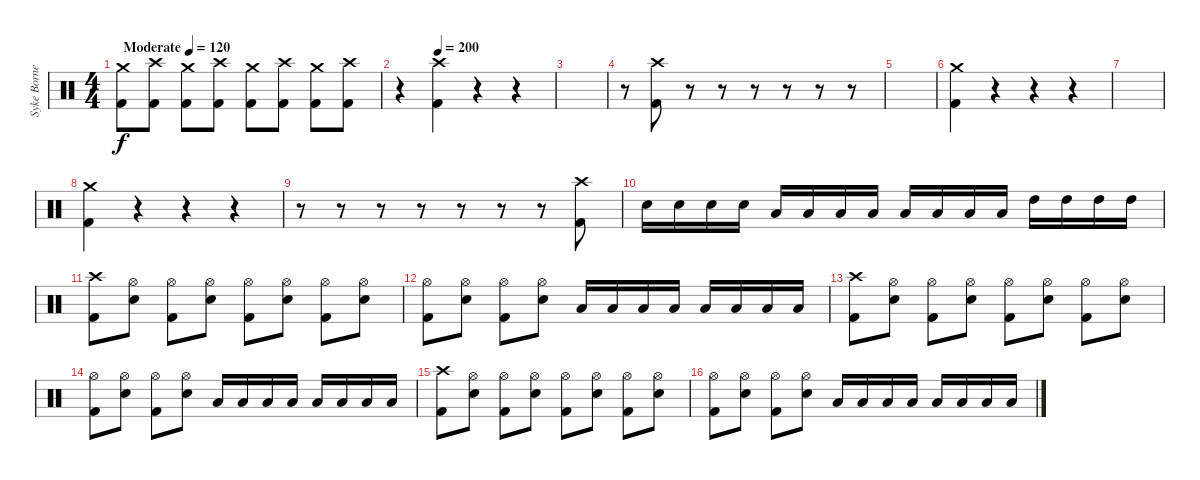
\track ("Syke Bornetto (Drums)" "Syke Borne") {instrument percussion}
\staff {score}
\articulation defaults
\ts (4 4)
\tempo (120 "Moderate")
\tempo 180
\tempo (120 "Moderate")
\clef neutral
\ks c
("Crash medium (hit)" "Kick (hit) 2").8{dy f} ("Crash high (hit)" "Kick (hit) 2").8 ("Crash medium (hit)" "Kick (hit) 2").8 ("Crash high (hit)" "Kick (hit) 2").8 ("Crash medium (hit)" "Kick (hit) 2").8 ("Crash high (hit)" "Kick (hit) 2").8 ("Crash medium (hit)" "Kick (hit) 2").8 ("Crash high (hit)" "Kick (hit) 2").8 |
\tempo (200 0.25)
r.4 ("Crash high (hit)" "Kick (hit) 2").4 r.4 r.4 |
|
r.8 ("Crash high (hit)" "Kick (hit) 2").8 r.8 r.8 r.8 r.8 r.8 r.8 |
|
("Crash medium (hit)" "Kick (hit) 2").4 r.4 r.4 r.4 |
|
("Crash medium (hit)" "Kick (hit) 2").4 r.4 r.4 r.4 |
r.8 r.8 r.8 r.8 r.8 r.8 r.8 ("Crash high (hit)" "Kick (hit) 2").8 |
"Electric Snare (hit)".16 "Electric Snare (hit)".16 "Electric Snare (hit)".16 "Electric Snare (hit)".16 "Low Floor Tom (hit)".16 "Low Floor Tom (hit)".16 "Low Floor Tom (hit)".16 "Low Floor Tom (hit)".16 "Low Tom (hit)".16 "Low Tom (hit)".16 "Low Tom (hit)".16 "Low Tom (hit)".16 "High Tom (hit)".16 "High Tom (hit)".16 "High Tom (hit)".16 "High Tom (hit)".16 |
("Crash high (hit)" "Kick (hit) 2").8 ("Hi-Hat (open)" "Electric Snare (hit)").8 ("Hi-Hat (open)" "Kick (hit) 2").8 ("Hi-Hat (open)" "Electric Snare (hit)").8 ("Hi-Hat (open)" "Kick (hit) 2").8 ("Hi-Hat (open)" "Electric Snare (hit)").8 ("Hi-Hat (open)" "Kick (hit) 2").8 ("Hi-Hat (open)" "Electric Snare (hit)").8 |
("Hi-Hat (open)" "Kick (hit) 2").8 ("Hi-Hat (open)" "Electric Snare (hit)").8 ("Hi-Hat (open)" "Kick (hit) 2").8 ("Hi-Hat (open)" "Electric Snare (hit)").8 "Low Floor Tom (hit)".16 "Low Floor Tom (hit)".16 "Low Floor Tom (hit)".16 "Low Floor Tom (hit)".16 "Low Tom (hit)".16 "Low Tom (hit)".16 "Low Tom (hit)".16 "Low Tom (hit)".16 |
("Crash high (hit)" "Kick (hit) 2").8 ("Hi-Hat (open)" "Electric Snare (hit)").8 ("Hi-Hat (open)" "Kick (hit) 2").8 ("Hi-Hat (open)" "Electric Snare (hit)").8 ("Hi-Hat (open)" "Kick (hit) 2").8 ("Hi-Hat (open)" "Electric Snare (hit)").8 ("Hi-Hat (open)" "Kick (hit) 2").8 ("Hi-Hat (open)" "Electric Snare (hit)").8 |
("Hi-Hat (open)" "Kick (hit) 2").8 ("Hi-Hat (open)" "Electric Snare (hit)").8 ("Hi-Hat (open)" "Kick (hit) 2").8 ("Hi-Hat (open)" "Electric Snare (hit)").8 "Low Floor Tom (hit)".16 "Low Floor Tom (hit)".16 "Low Floor Tom (hit)".16 "Low Floor Tom (hit)".16 "Low Tom (hit)".16 "Low Tom (hit)".16 "Low Tom (hit)".16 "Low Tom (hit)".16 |
("Crash high (hit)" "Kick (hit) 2").8 ("Hi-Hat (open)" "Electric Snare (hit)").8 ("Hi-Hat (open)" "Kick (hit) 2").8 ("Hi-Hat (open)" "Electric Snare (hit)").8 ("Hi-Hat (open)" "Kick (hit) 2").8 ("Hi-Hat (open)" "Electric Snare (hit)").8 ("Hi-Hat (open)" "Kick (hit) 2").8 ("Hi-Hat (open)" "Electric Snare (hit)").8 |
("Hi-Hat (open)" "Kick (hit) 2").8 ("Hi-Hat (open)" "Electric Snare (hit)").8 ("Hi-Hat (open)" "Kick (hit) 2").8 ("Hi-Hat (open)" "Electric Snare (hit)").8 "Low Floor Tom (hit)".16 "Low Floor Tom (hit)".16 "Low Floor Tom (hit)".16 "Low Floor Tom (hit)".16 "Low Tom (hit)".16 "Low Tom (hit)".16 "Low Tom (hit)".16 "Low Tom (hit)".16
